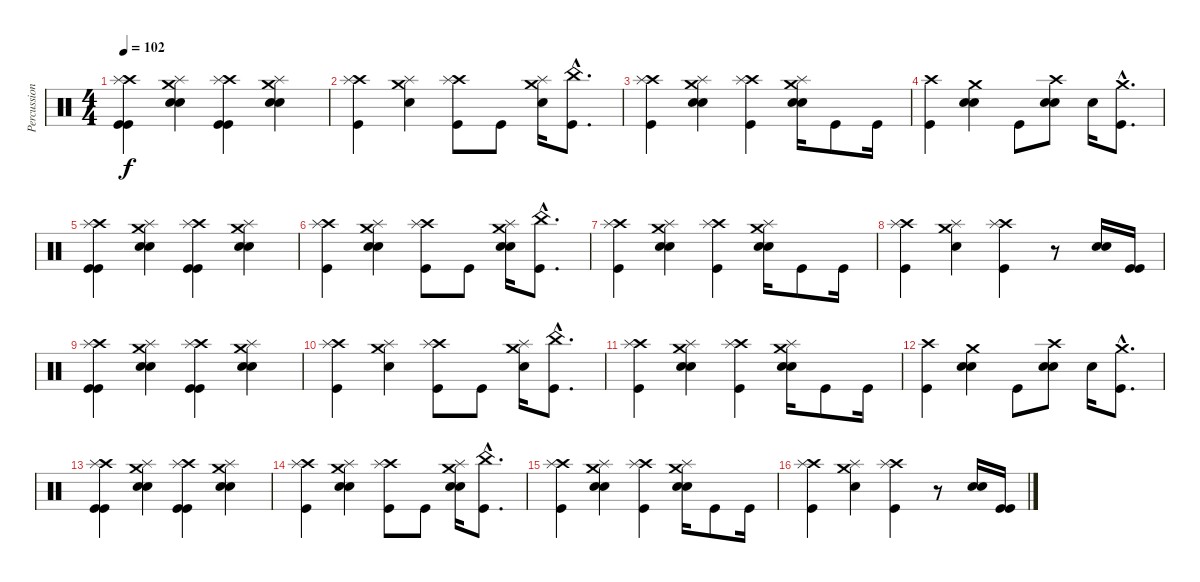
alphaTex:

\track ("Percussion (David)" "Percussion") {instrument percussion}
\staff {score}
\articulation defaults
\ts (4 4)
\tempo 102
\clef neutral
\ks c
("Kick (hit)" "Crash high (hit)" "Splash (hit)" "Kick (hit)").4{dy f} ("Electric Snare (hit)" "Crash medium (hit)" "Splash (hit)" "Electric Snare (hit)").4 ("Kick (hit)" "Crash high (hit)" "Splash (hit)" "Kick (hit)").4 ("Electric Snare (hit)" "Crash medium (hit)" "Splash (hit)" "Electric Snare (hit)").4 |
("Kick (hit)" "Crash high (hit)" "Splash (hit)").4 ("Electric Snare (hit)" "Crash medium (hit)" "Splash (hit)").4 ("Kick (hit)" "Crash high (hit)" "Splash (hit)").8 "Kick (hit)".8 ("Electric Snare (hit)" "Crash medium (hit)" "Splash (hit)").16 ("Kick (hit)"{hac} "China (hit)"{hac}).8{d} |
("Kick (hit)" "Crash high (hit)" "Splash (hit)").4 ("Electric Snare (hit)" "Crash medium (hit)" "Splash (hit)" "Electric Snare (hit)").4 ("Kick (hit)" "Crash high (hit)" "Splash (hit)").4 ("Electric Snare (hit)" "Crash medium (hit)" "Splash (hit)" "Electric Snare (hit)").16 "Kick (hit)".8 "Kick (hit)".16 |
("Kick (hit)" "Crash high (hit)").4 ("Electric Snare (hit)" "Crash medium (hit)" "Electric Snare (hit)").4 "Kick (hit)".8 ("Electric Snare (hit)" "Crash high (hit)" "Electric Snare (hit)").8 "Electric Snare (hit)".16 ("Kick (hit)"{hac} "Crash medium (hit)"{hac}).8{d} |
("Kick (hit)" "Crash high (hit)" "Splash (hit)" "Kick (hit)").4 ("Electric Snare (hit)" "Crash medium (hit)" "Splash (hit)" "Electric Snare (hit)").4 ("Kick (hit)" "Crash high (hit)" "Splash (hit)" "Kick (hit)").4 ("Electric Snare (hit)" "Crash medium (hit)" "Splash (hit)" "Electric Snare (hit)").4 |
("Kick (hit)" "Crash high (hit)" "Splash (hit)").4 ("Electric Snare (hit)" "Crash medium (hit)" "Splash (hit)" "Electric Snare (hit)").4 ("Kick (hit)" "Crash high (hit)" "Splash (hit)").8 "Kick (hit)".8 ("Electric Snare (hit)" "Crash medium (hit)" "Splash (hit)" "Electric Snare (hit)").16 ("Kick (hit)"{hac} "China (hit)"{hac}).8{d} |
("Kick (hit)" "Crash high (hit)" "Splash (hit)").4 ("Electric Snare (hit)" "Crash medium (hit)" "Splash (hit)" "Electric Snare (hit)").4 ("Kick (hit)" "Crash high (hit)" "Splash (hit)").4 ("Electric Snare (hit)" "Crash medium (hit)" "Splash (hit)" "Electric Snare (hit)").16 "Kick (hit)".8 "Kick (hit)".16 |
("Kick (hit)" "Crash high (hit)" "Splash (hit)").4 ("Electric Snare (hit)" "Crash medium (hit)" "Splash (hit)").4 ("Kick (hit)" "Crash high (hit)" "Splash (hit)").4 r.8 ("Electric Snare (hit)" "Electric Snare (hit)").16 ("Kick (hit)" "Kick (hit)").16 |
("Kick (hit)" "Crash high (hit)" "Splash (hit)" "Kick (hit)").4 ("Electric Snare (hit)" "Crash medium (hit)" "Splash (hit)" "Electric Snare (hit)").4 ("Kick (hit)" "Crash high (hit)" "Splash (hit)" "Kick (hit)").4 ("Electric Snare (hit)" "Crash medium (hit)" "Splash (hit)" "Electric Snare (hit)").4 |
("Kick (hit)" "Crash high (hit)" "Splash (hit)").4 ("Electric Snare (hit)" "Crash medium (hit)" "Splash (hit)").4 ("Kick (hit)" "Crash high (hit)" "Splash (hit)").8 "Kick (hit)".8 ("Electric Snare (hit)" "Crash medium (hit)" "Splash (hit)").16 ("Kick (hit)"{hac} "China (hit)"{hac}).8{d} |
("Kick (hit)" "Crash high (hit)" "Splash (hit)").4 ("Electric Snare (hit)" "Crash medium (hit)" "Splash (hit)" "Electric Snare (hit)").4 ("Kick (hit)" "Crash high (hit)" "Splash (hit)").4 ("Electric Snare (hit)" "Crash medium (hit)" "Splash (hit)" "Electric Snare (hit)").16 "Kick (hit)".8 "Kick (hit)".16 |
("Kick (hit)" "Crash high (hit)").4 ("Electric Snare (hit)" "Crash medium (hit)" "Electric Snare (hit)").4 "Kick (hit)".8 ("Electric Snare (hit)" "Crash high (hit)" "Electric Snare (hit)").8 "Electric Snare (hit)".16 ("Kick (hit)"{hac} "Crash medium (hit)"{hac}).8{d} |
("Kick (hit)" "Crash high (hit)" "Splash (hit)" "Kick (hit)").4 ("Electric Snare (hit)" "Crash medium (hit)" "Splash (hit)" "Electric Snare (hit)").4 ("Kick (hit)" "Crash high (hit)" "Splash (hit)" "Kick (hit)").4 ("Electric Snare (hit)" "Crash medium (hit)" "Splash (hit)" "Electric Snare (hit)").4 |
("Kick (hit)" "Crash high (hit)" "Splash (hit)").4 ("Electric Snare (hit)" "Crash medium (hit)" "Splash (hit)" "Electric Snare (hit)").4 ("Kick (hit)" "Crash high (hit)" "Splash (hit)").8 "Kick (hit)".8 ("Electric Snare (hit)" "Crash medium (hit)" "Splash (hit)" "Electric Snare (hit)").16 ("Kick (hit)"{hac} "China (hit)"{hac}).8{d} |
("Kick (hit)" "Crash high (hit)" "Splash (hit)").4 ("Electric Snare (hit)" "Crash medium (hit)" "Splash (hit)" "Electric Snare (hit)").4 ("Kick (hit)" "Crash high (hit)" "Splash (hit)").4 ("Electric Snare (hit)" "Crash medium (hit)" "Splash (hit)" "Electric Snare (hit)").16 "Kick (hit)".8 "Kick (hit)".16 |
("Kick (hit)" "Crash high (hit)" "Splash (hit)").4 ("Electric Snare (hit)" "Crash medium (hit)" "Splash (hit)").4 ("Kick (hit)" "Crash high (hit)" "Splash (hit)").4 r.8 ("Electric Snare (hit)" "Electric Snare (hit)").16 ("Kick (hit)" "Kick (hit)").16
